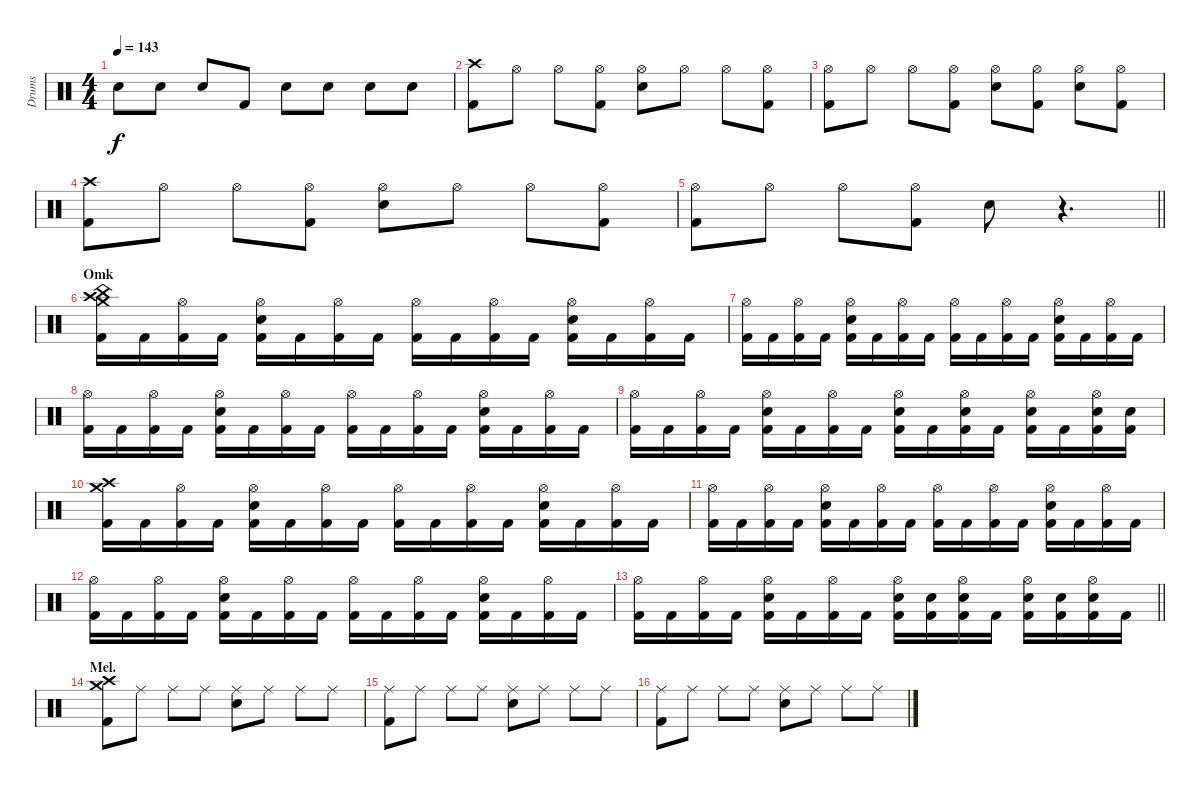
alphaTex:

\track ("Drums" "Drums") {instrument percussion}
\staff {score}
\articulation defaults
\ts (4 4)
\tempo 143
\clef neutral
\ks c "Snare (hit) 2".8{dy f} "Snare (hit) 2".8 "Snare (hit) 2".8 "Kick (hit) 2".8 "Snare (hit) 2".8 "Snare (hit) 2".8 "Snare (hit) 2".8 "Snare (hit) 2".8
|
("Crash high (hit)" "Kick (hit) 2").8 "Hi-Hat (open)".8 "Hi-Hat (open)".8 ("Hi-Hat (open)" "Kick (hit) 2").8 ("Hi-Hat (open)" "Snare (hit) 2").8 "Hi-Hat (open)".8 "Hi-Hat (open)".8 ("Hi-Hat (open)" "Kick (hit) 2").8 |
("Hi-Hat (open)" "Kick (hit) 2").8 "Hi-Hat (open)".8 "Hi-Hat (open)".8 ("Hi-Hat (open)" "Kick (hit) 2").8 ("Hi-Hat (open)" "Snare (hit) 2").8 ("Hi-Hat (open)" "Kick (hit) 2").8 ("Hi-Hat (open)" "Snare (hit) 2").8 ("Hi-Hat (open)" "Kick (hit) 2").8 |
("Crash high (hit)" "Kick (hit) 2").8 "Hi-Hat (open)".8 "Hi-Hat (open)".8 ("Hi-Hat (open)" "Kick (hit) 2").8 ("Hi-Hat (open)" "Snare (hit) 2").8 "Hi-Hat (open)".8 "Hi-Hat (open)".8 ("Hi-Hat (open)" "Kick (hit) 2").8 |
\barLineRight lightlight
("Hi-Hat (open)" "Kick (hit) 2").8 "Hi-Hat (open)".8 "Hi-Hat (open)".8 ("Hi-Hat (open)" "Kick (hit) 2").8 "Snare (hit) 2".8 r.4{d} |
\section ("" "Omk")
("Crash medium (hit)" "Crash high (hit)" "China (hit)" "Kick (hit) 2").16 "Kick (hit) 2".16 ("Hi-Hat (open)" "Kick (hit) 2").16 "Kick (hit) 2".16 ("Hi-Hat (open)" "Snare (hit) 2" "Kick (hit) 2").16 "Kick (hit) 2".16 ("Hi-Hat (open)" "Kick (hit) 2").16 "Kick (hit) 2".16 ("Hi-Hat (open)" "Kick (hit) 2").16 "Kick (hit) 2".16 ("Hi-Hat (open)" "Kick (hit) 2").16 "Kick (hit) 2".16 ("Hi-Hat (open)" "Snare (hit) 2" "Kick (hit) 2").16 "Kick (hit) 2".16 ("Hi-Hat (open)" "Kick (hit) 2").16 "Kick (hit) 2".16 |
("Hi-Hat (open)" "Kick (hit) 2").16 "Kick (hit) 2".16 ("Hi-Hat (open)" "Kick (hit) 2").16 "Kick (hit) 2".16 ("Hi-Hat (open)" "Snare (hit) 2" "Kick (hit) 2").16 "Kick (hit) 2".16 ("Hi-Hat (open)" "Kick (hit) 2").16 "Kick (hit) 2".16 ("Hi-Hat (open)" "Kick (hit) 2").16 "Kick (hit) 2".16 ("Hi-Hat (open)" "Kick (hit) 2").16 "Kick (hit) 2".16 ("Hi-Hat (open)" "Snare (hit) 2" "Kick (hit) 2").16 "Kick (hit) 2".16 ("Hi-Hat (open)" "Kick (hit) 2").16 "Kick (hit) 2".16 |
("Hi-Hat (open)" "Kick (hit) 2").16 "Kick (hit) 2".16 ("Hi-Hat (open)" "Kick (hit) 2").16 "Kick (hit) 2".16 ("Hi-Hat (open)" "Snare (hit) 2" "Kick (hit) 2").16 "Kick (hit) 2".16 ("Hi-Hat (open)" "Kick (hit) 2").16 "Kick (hit) 2".16 ("Hi-Hat (open)" "Kick (hit) 2").16 "Kick (hit) 2".16 ("Hi-Hat (open)" "Kick (hit) 2").16 "Kick (hit) 2".16 ("Hi-Hat (open)" "Snare (hit) 2" "Kick (hit) 2").16 "Kick (hit) 2".16 ("Hi-Hat (open)" "Kick (hit) 2").16 "Kick (hit) 2".16 |
("Hi-Hat (open)" "Kick (hit) 2").16 "Kick (hit) 2".16 ("Hi-Hat (open)" "Kick (hit) 2").16 "Kick (hit) 2".16 ("Hi-Hat (open)" "Snare (hit) 2" "Kick (hit) 2").16 "Kick (hit) 2".16 ("Hi-Hat (open)" "Kick (hit) 2").16 "Kick (hit) 2".16 ("Hi-Hat (open)" "Snare (hit) 2" "Kick (hit) 2").16 "Kick (hit) 2".16 ("Hi-Hat (open)" "Snare (hit) 2" "Kick (hit) 2").16 "Kick (hit) 2".16 ("Hi-Hat (open)" "Snare (hit) 2" "Kick (hit) 2").16 "Kick (hit) 2".16 ("Hi-Hat (open)" "Snare (hit) 2" "Kick (hit) 2").16 ("Snare (hit) 2" "Kick (hit) 2").16 |
("Crash medium (hit)" "Crash high (hit)" "Kick (hit) 2").16 "Kick (hit) 2".16 ("Hi-Hat (open)" "Kick (hit) 2").16 "Kick (hit) 2".16 ("Hi-Hat (open)" "Snare (hit) 2" "Kick (hit) 2").16 "Kick (hit) 2".16 ("Hi-Hat (open)" "Kick (hit) 2").16 "Kick (hit) 2".16 ("Hi-Hat (open)" "Kick (hit) 2").16 "Kick (hit) 2".16 ("Hi-Hat (open)" "Kick (hit) 2").16 "Kick (hit) 2".16 ("Hi-Hat (open)" "Snare (hit) 2" "Kick (hit) 2").16 "Kick (hit) 2".16 ("Hi-Hat (open)" "Kick (hit) 2").16 "Kick (hit) 2".16 |
("Hi-Hat (open)" "Kick (hit) 2").16 "Kick (hit) 2".16 ("Hi-Hat (open)" "Kick (hit) 2").16 "Kick (hit) 2".16 ("Hi-Hat (open)" "Snare (hit) 2" "Kick (hit) 2").16 "Kick (hit) 2".16 ("Hi-Hat (open)" "Kick (hit) 2").16 "Kick (hit) 2".16 ("Hi-Hat (open)" "Kick (hit) 2").16 "Kick (hit) 2".16 ("Hi-Hat (open)" "Kick (hit) 2").16 "Kick (hit) 2".16 ("Hi-Hat (open)" "Snare (hit) 2" "Kick (hit) 2").16 "Kick (hit) 2".16 ("Hi-Hat (open)" "Kick (hit) 2").16 "Kick (hit) 2".16 |
("Hi-Hat (open)" "Kick (hit) 2").16 "Kick (hit) 2".16 ("Hi-Hat (open)" "Kick (hit) 2").16 "Kick (hit) 2".16 ("Hi-Hat (open)" "Snare (hit) 2" "Kick (hit) 2").16 "Kick (hit) 2".16 ("Hi-Hat (open)" "Kick (hit) 2").16 "Kick (hit) 2".16 ("Hi-Hat (open)" "Kick (hit) 2").16 "Kick (hit) 2".16 ("Hi-Hat (open)" "Kick (hit) 2").16 "Kick (hit) 2".16 ("Hi-Hat (open)" "Snare (hit) 2" "Kick (hit) 2").16 "Kick (hit) 2".16 ("Hi-Hat (open)" "Kick (hit) 2").16 "Kick (hit) 2".16 |
\barLineRight lightlight
("Hi-Hat (open)" "Kick (hit) 2").16 "Kick (hit) 2".16 ("Hi-Hat (open)" "Kick (hit) 2").16 "Kick (hit) 2".16 ("Hi-Hat (open)" "Snare (hit) 2" "Kick (hit) 2").16 "Kick (hit) 2".16 ("Hi-Hat (open)" "Kick (hit) 2").16 "Kick (hit) 2".16 ("Hi-Hat (open)" "Snare (hit) 2" "Kick (hit) 2").16 ("Snare (hit) 2" "Kick (hit) 2").16 ("Hi-Hat (open)" "Snare (hit) 2" "Kick (hit) 2").16 "Kick (hit) 2".16 ("Hi-Hat (open)" "Snare (hit) 2" "Kick (hit) 2").16 ("Snare (hit) 2" "Kick (hit) 2").16 ("Hi-Hat (open)" "Snare (hit) 2" "Kick (hit) 2").16 "Kick (hit) 2".16 |
\section ("" "Mel.")
("Crash medium (hit)" "Crash high (hit)" "Kick (hit) 2").8 "Ride (middle)".8 "Ride (middle)".8 "Ride (middle)".8 ("Ride (middle)" "Snare (hit) 2").8 "Ride (middle)".8 "Ride (middle)".8 "Ride (middle)".8 |
("Ride (middle)" "Kick (hit) 2").8 "Ride (middle)".8 "Ride (middle)".8 "Ride (middle)".8 ("Ride (middle)" "Snare (hit) 2").8 "Ride (middle)".8 "Ride (middle)".8 "Ride (middle)".8 |
("Ride (middle)" "Kick (hit) 2").8 "Ride (middle)".8 "Ride (middle)".8 "Ride (middle)".8 ("Ride (middle)" "Snare (hit) 2").8 "Ride (middle)".8 "Ride (middle)".8 "Ride (middle)".8
